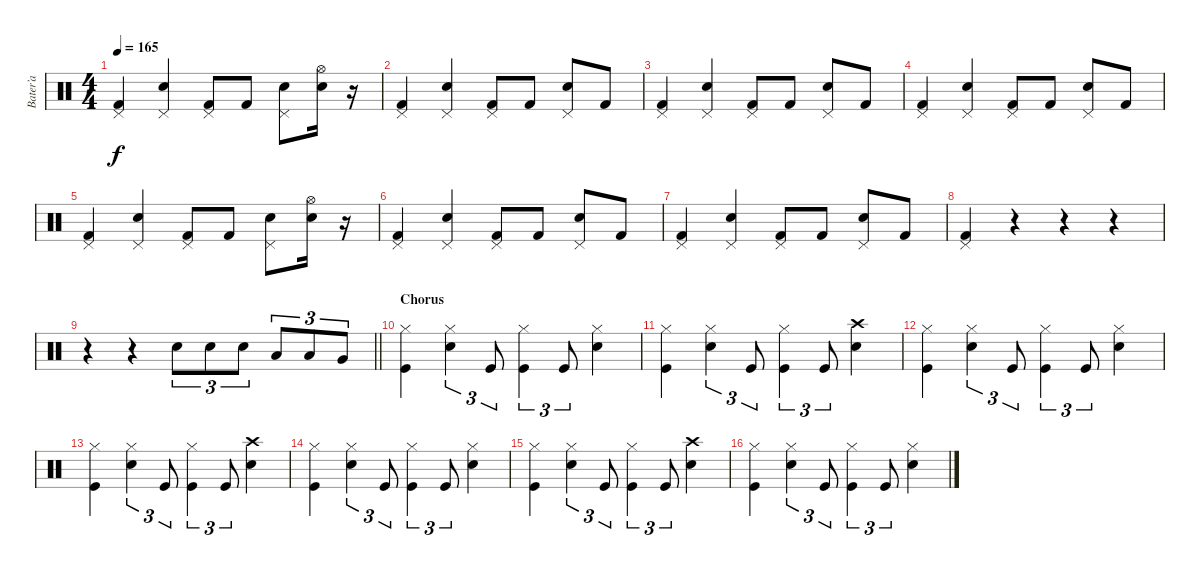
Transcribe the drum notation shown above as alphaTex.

\track ("Bater’a" "Bater’a") {instrument percussion}
\staff {score}
\articulation defaults
\ts (4 4)
\tempo 165
\clef neutral
\ks c
("Pedal Hi-Hat (hit)" "Kick (hit) 2").4{dy f} ("Pedal Hi-Hat (hit)" "Electric Snare (hit)").4 ("Pedal Hi-Hat (hit)" "Kick (hit) 2").8 "Kick (hit) 2".8 ("Pedal Hi-Hat (hit)" "Electric Snare (hit)").8 ("Hi-Hat (open)" "Electric Snare (hit)").16 r.16 |
("Pedal Hi-Hat (hit)" "Kick (hit) 2").4 ("Pedal Hi-Hat (hit)" "Electric Snare (hit)").4 ("Pedal Hi-Hat (hit)" "Kick (hit) 2").8 "Kick (hit) 2".8 ("Pedal Hi-Hat (hit)" "Electric Snare (hit)").8 "Kick (hit) 2".8 |
("Pedal Hi-Hat (hit)" "Kick (hit) 2").4 ("Pedal Hi-Hat (hit)" "Electric Snare (hit)").4 ("Pedal Hi-Hat (hit)" "Kick (hit) 2").8 "Kick (hit) 2".8 ("Pedal Hi-Hat (hit)" "Electric Snare (hit)").8 "Kick (hit) 2".8 |
("Pedal Hi-Hat (hit)" "Kick (hit) 2").4 ("Pedal Hi-Hat (hit)" "Electric Snare (hit)").4 ("Pedal Hi-Hat (hit)" "Kick (hit) 2").8 "Kick (hit) 2".8 ("Pedal Hi-Hat (hit)" "Electric Snare (hit)").8 "Kick (hit) 2".8 |
("Pedal Hi-Hat (hit)" "Kick (hit) 2").4 ("Pedal Hi-Hat (hit)" "Electric Snare (hit)").4 ("Pedal Hi-Hat (hit)" "Kick (hit) 2").8 "Kick (hit) 2".8 ("Pedal Hi-Hat (hit)" "Electric Snare (hit)").8 ("Hi-Hat (open)" "Electric Snare (hit)").16 r.16 |
("Pedal Hi-Hat (hit)" "Kick (hit) 2").4 ("Pedal Hi-Hat (hit)" "Electric Snare (hit)").4 ("Pedal Hi-Hat (hit)" "Kick (hit) 2").8 "Kick (hit) 2".8 ("Pedal Hi-Hat (hit)" "Electric Snare (hit)").8 "Kick (hit) 2".8 |
("Pedal Hi-Hat (hit)" "Kick (hit) 2").4 ("Pedal Hi-Hat (hit)" "Electric Snare (hit)").4 ("Pedal Hi-Hat (hit)" "Kick (hit) 2").8 "Kick (hit) 2".8 ("Pedal Hi-Hat (hit)" "Electric Snare (hit)").8 "Kick (hit) 2".8 |
("Pedal Hi-Hat (hit)" "Kick (hit) 2").4 r.4 r.4 r.4 |
\barLineRight lightlight
r.4 r.4 "Electric Snare (hit)".8{tu (3 2)} "Electric Snare (hit)".8{tu (3 2)} "Electric Snare (hit)".8{tu (3 2)} "Low Tom (hit)".8{tu (3 2)} "Low Tom (hit)".8{tu (3 2)} "Very Low Tom (hit)".8{tu (3 2)} |
\section ("" "Chorus")
("Hi-Hat (closed)" "Kick (hit)").4 ("Hi-Hat (closed)" "Snare (hit) 2").4{tu (3 2)} "Kick (hit)".8{tu (3 2)} ("Hi-Hat (closed)" "Kick (hit)").4{tu (3 2)} "Kick (hit)".8{tu (3 2)} ("Hi-Hat (closed)" "Snare (hit) 2").4 |
("Hi-Hat (closed)" "Kick (hit)").4 ("Hi-Hat (closed)" "Snare (hit) 2").4{tu (3 2)} "Kick (hit)".8{tu (3 2)} ("Hi-Hat (closed)" "Kick (hit)").4{tu (3 2)} "Kick (hit)".8{tu (3 2)} ("Crash high (hit)" "Snare (hit) 2").4 |
("Hi-Hat (closed)" "Kick (hit)").4 ("Hi-Hat (closed)" "Snare (hit) 2").4{tu (3 2)} "Kick (hit)".8{tu (3 2)} ("Hi-Hat (closed)" "Kick (hit)").4{tu (3 2)} "Kick (hit)".8{tu (3 2)} ("Hi-Hat (closed)" "Snare (hit) 2").4 |
("Hi-Hat (closed)" "Kick (hit)").4 ("Hi-Hat (closed)" "Snare (hit) 2").4{tu (3 2)} "Kick (hit)".8{tu (3 2)} ("Hi-Hat (closed)" "Kick (hit)").4{tu (3 2)} "Kick (hit)".8{tu (3 2)} ("Crash high (hit)" "Snare (hit) 2").4 |
("Hi-Hat (closed)" "Kick (hit)").4 ("Hi-Hat (closed)" "Snare (hit) 2").4{tu (3 2)} "Kick (hit)".8{tu (3 2)} ("Hi-Hat (closed)" "Kick (hit)").4{tu (3 2)} "Kick (hit)".8{tu (3 2)} ("Hi-Hat (closed)" "Snare (hit) 2").4 |
("Hi-Hat (closed)" "Kick (hit)").4 ("Hi-Hat (closed)" "Snare (hit) 2").4{tu (3 2)} "Kick (hit)".8{tu (3 2)} ("Hi-Hat (closed)" "Kick (hit)").4{tu (3 2)} "Kick (hit)".8{tu (3 2)} ("Crash high (hit)" "Snare (hit) 2").4 |
("Hi-Hat (closed)" "Kick (hit)").4 ("Hi-Hat (closed)" "Snare (hit) 2").4{tu (3 2)} "Kick (hit)".8{tu (3 2)} ("Hi-Hat (closed)" "Kick (hit)").4{tu (3 2)} "Kick (hit)".8{tu (3 2)} ("Hi-Hat (closed)" "Snare (hit) 2").4
